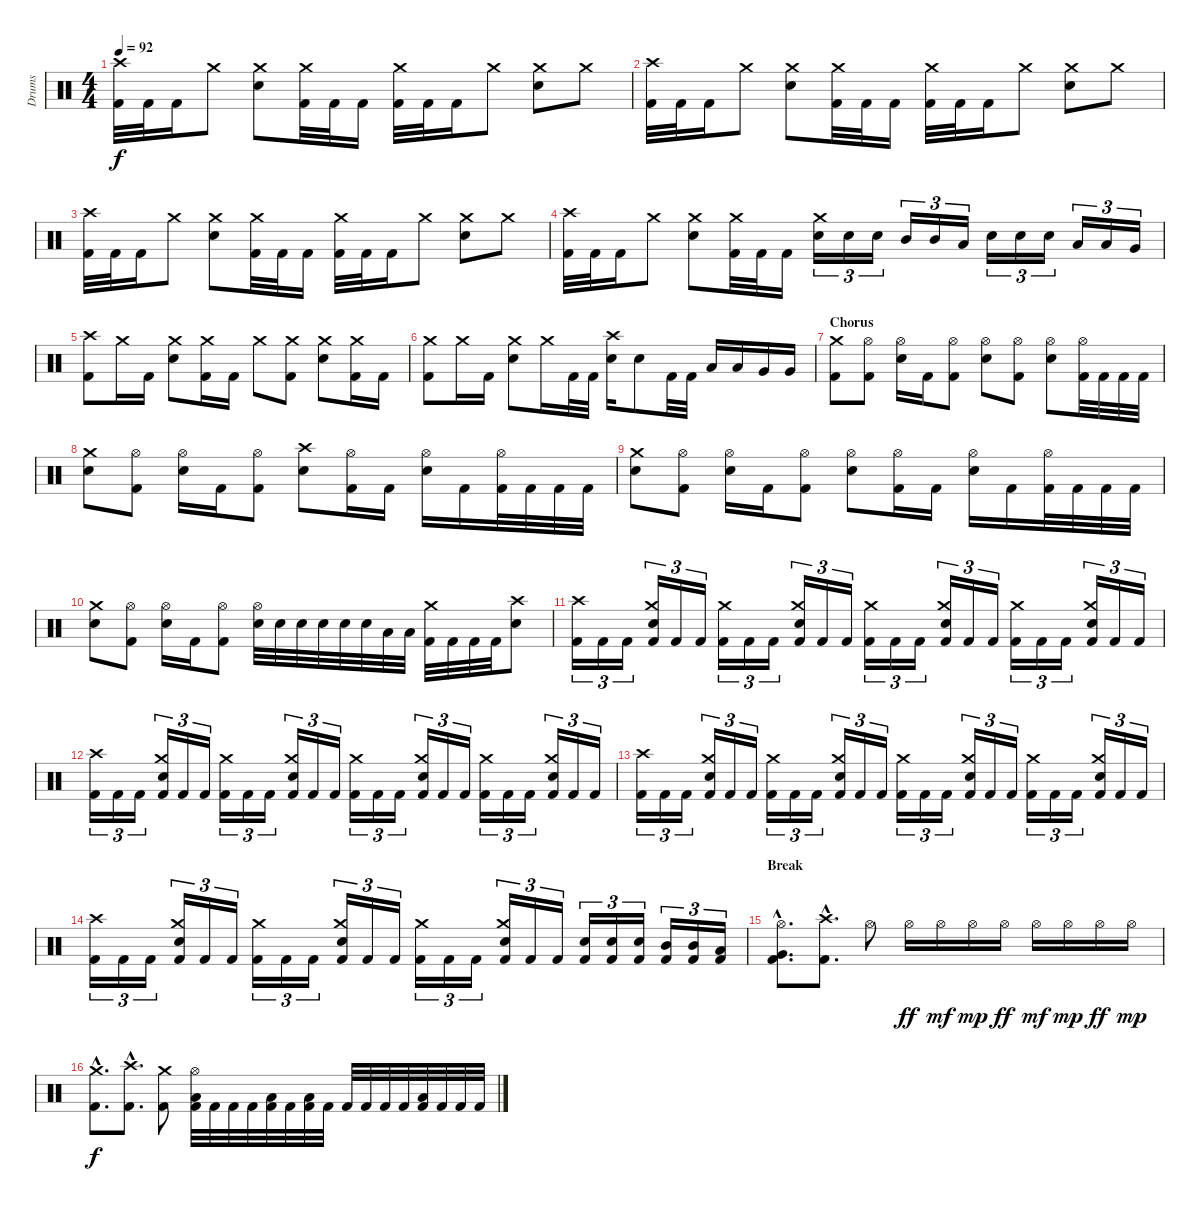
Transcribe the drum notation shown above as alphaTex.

\track ("Drums" "Drums") {instrument percussion}
\staff {score}
\articulation defaults
\ts (4 4)
\tempo 92
\clef neutral
\ks c
("Kick (hit) 2" "Crash high (hit)").32{dy f} "Kick (hit) 2".32 "Kick (hit) 2".16 "Crash medium (hit)".8 ("Electric Snare (hit)" "Crash medium (hit)").8 ("Kick (hit) 2" "Crash medium (hit)").32 "Kick (hit) 2".32 "Kick (hit) 2".16 ("Kick (hit) 2" "Crash medium (hit)").32 "Kick (hit) 2".32 "Kick (hit) 2".16 "Crash medium (hit)".8 ("Electric Snare (hit)" "Crash medium (hit)").8 "Crash medium (hit)".8 |
("Kick (hit) 2" "Crash high (hit)").32 "Kick (hit) 2".32 "Kick (hit) 2".16 "Crash medium (hit)".8 ("Electric Snare (hit)" "Crash medium (hit)").8 ("Kick (hit) 2" "Crash medium (hit)").32 "Kick (hit) 2".32 "Kick (hit) 2".16 ("Kick (hit) 2" "Crash medium (hit)").32 "Kick (hit) 2".32 "Kick (hit) 2".16 "Crash medium (hit)".8 ("Electric Snare (hit)" "Crash medium (hit)").8 "Crash medium (hit)".8 |
("Kick (hit) 2" "Crash high (hit)").32 "Kick (hit) 2".32 "Kick (hit) 2".16 "Crash medium (hit)".8 ("Electric Snare (hit)" "Crash medium (hit)").8 ("Kick (hit) 2" "Crash medium (hit)").32 "Kick (hit) 2".32 "Kick (hit) 2".16 ("Kick (hit) 2" "Crash medium (hit)").32 "Kick (hit) 2".32 "Kick (hit) 2".16 "Crash medium (hit)".8 ("Electric Snare (hit)" "Crash medium (hit)").8 "Crash medium (hit)".8 |
("Kick (hit) 2" "Crash high (hit)").32 "Kick (hit) 2".32 "Kick (hit) 2".16 "Crash medium (hit)".8 ("Electric Snare (hit)" "Crash medium (hit)").8 ("Kick (hit) 2" "Crash medium (hit)").32 "Kick (hit) 2".32 "Kick (hit) 2".16 ("Electric Snare (hit)" "Crash medium (hit)").16{tu (3 2)} "Electric Snare (hit)".16{tu (3 2)} "Electric Snare (hit)".16{tu (3 2)} "Mid Tom (hit)".16{tu (3 2)} "Mid Tom (hit)".16{tu (3 2)} "Low Tom (hit)".16{tu (3 2)} "Electric Snare (hit)".16{tu (3 2)} "Electric Snare (hit)".16{tu (3 2)} "Electric Snare (hit)".16{tu (3 2)} "Low Tom (hit)".16{tu (3 2)} "Low Tom (hit)".16{tu (3 2)} "Very Low Tom (hit)".16{tu (3 2)} |
("Kick (hit) 2" "Crash high (hit)").8 "Crash medium (hit)".16 "Kick (hit) 2".16 ("Electric Snare (hit)" "Crash medium (hit)").8 ("Kick (hit) 2" "Crash medium (hit)").16 "Kick (hit) 2".16 "Crash medium (hit)".8 ("Kick (hit) 2" "Crash medium (hit)").8 ("Electric Snare (hit)" "Crash medium (hit)").8 ("Kick (hit) 2" "Crash medium (hit)").16 "Kick (hit) 2".16 |
("Kick (hit) 2" "Crash medium (hit)").8 "Crash medium (hit)".16 "Kick (hit) 2".16 ("Electric Snare (hit)" "Crash medium (hit)").8 "Crash medium (hit)".16 "Kick (hit) 2".32 "Kick (hit) 2".32 ("Electric Snare (hit)" "Crash high (hit)").16 "Electric Snare (hit)".8 "Kick (hit) 2".32 "Kick (hit) 2".32 "Low Tom (hit)".16 "Low Tom (hit)".16 "Very Low Tom (hit)".16 "Very Low Tom (hit)".16 |
\section ("" "Chorus")
("Kick (hit) 2" "Crash medium (hit)").8 ("Kick (hit) 2" "Hi-Hat (open)").8 ("Electric Snare (hit)" "Hi-Hat (open)").16 "Kick (hit) 2".16 ("Kick (hit) 2" "Hi-Hat (open)").8 ("Electric Snare (hit)" "Hi-Hat (open)").8 ("Kick (hit) 2" "Hi-Hat (open)").8 ("Electric Snare (hit)" "Hi-Hat (open)").8 ("Kick (hit) 2" "Hi-Hat (open)").32 "Kick (hit) 2".32 "Kick (hit) 2".32 "Kick (hit) 2".32 |
("Electric Snare (hit)" "Crash medium (hit)").8 ("Kick (hit) 2" "Hi-Hat (open)").8 ("Electric Snare (hit)" "Hi-Hat (open)").16 "Kick (hit) 2".16 ("Kick (hit) 2" "Hi-Hat (open)").8 ("Electric Snare (hit)" "Crash high (hit)").8 ("Kick (hit) 2" "Hi-Hat (open)").16 "Kick (hit) 2".16 ("Electric Snare (hit)" "Hi-Hat (open)").16 "Kick (hit) 2".16 ("Kick (hit) 2" "Hi-Hat (open)").32 "Kick (hit) 2".32 "Kick (hit) 2".32 "Kick (hit) 2".32 |
("Electric Snare (hit)" "Crash medium (hit)").8 ("Kick (hit) 2" "Hi-Hat (open)").8 ("Electric Snare (hit)" "Hi-Hat (open)").16 "Kick (hit) 2".16 ("Kick (hit) 2" "Hi-Hat (open)").8 ("Electric Snare (hit)" "Hi-Hat (open)").8 ("Kick (hit) 2" "Hi-Hat (open)").16 "Kick (hit) 2".16 ("Electric Snare (hit)" "Hi-Hat (open)").16 "Kick (hit) 2".16 ("Kick (hit) 2" "Hi-Hat (open)").32 "Kick (hit) 2".32 "Kick (hit) 2".32 "Kick (hit) 2".32 |
("Electric Snare (hit)" "Crash medium (hit)").8 ("Kick (hit) 2" "Hi-Hat (open)").8 ("Electric Snare (hit)" "Hi-Hat (open)").16 "Kick (hit) 2".16 ("Kick (hit) 2" "Hi-Hat (open)").8 ("Electric Snare (hit)" "Hi-Hat (open)").32 "Electric Snare (hit)".32 "Electric Snare (hit)".32 "Electric Snare (hit)".32 "Electric Snare (hit)".32 "Electric Snare (hit)".32 "Low Tom (hit)".32 "Low Tom (hit)".32 ("Kick (hit) 2" "Crash medium (hit)").32 "Kick (hit) 2".32 "Kick (hit) 2".32 "Kick (hit) 2".32 ("Electric Snare (hit)" "Crash high (hit)").8 |
("Kick (hit) 2" "Crash high (hit)").16{tu (3 2)} "Kick (hit) 2".16{tu (3 2)} "Kick (hit) 2".16{tu (3 2)} ("Kick (hit) 2" "Electric Snare (hit)" "Crash medium (hit)").16{tu (3 2)} "Kick (hit) 2".16{tu (3 2)} "Kick (hit) 2".16{tu (3 2)} ("Kick (hit) 2" "Crash medium (hit)").16{tu (3 2)} "Kick (hit) 2".16{tu (3 2)} "Kick (hit) 2".16{tu (3 2)} ("Kick (hit) 2" "Electric Snare (hit)" "Crash medium (hit)").16{tu (3 2)} "Kick (hit) 2".16{tu (3 2)} "Kick (hit) 2".16{tu (3 2)} ("Kick (hit) 2" "Crash medium (hit)").16{tu (3 2)} "Kick (hit) 2".16{tu (3 2)} "Kick (hit) 2".16{tu (3 2)} ("Kick (hit) 2" "Electric Snare (hit)" "Crash medium (hit)").16{tu (3 2)} "Kick (hit) 2".16{tu (3 2)} "Kick (hit) 2".16{tu (3 2)} ("Kick (hit) 2" "Crash medium (hit)").16{tu (3 2)} "Kick (hit) 2".16{tu (3 2)} "Kick (hit) 2".16{tu (3 2)} ("Kick (hit) 2" "Electric Snare (hit)" "Crash medium (hit)").16{tu (3 2)} "Kick (hit) 2".16{tu (3 2)} "Kick (hit) 2".16{tu (3 2)} |
("Kick (hit) 2" "Crash high (hit)").16{tu (3 2)} "Kick (hit) 2".16{tu (3 2)} "Kick (hit) 2".16{tu (3 2)} ("Kick (hit) 2" "Electric Snare (hit)" "Crash medium (hit)").16{tu (3 2)} "Kick (hit) 2".16{tu (3 2)} "Kick (hit) 2".16{tu (3 2)} ("Kick (hit) 2" "Crash medium (hit)").16{tu (3 2)} "Kick (hit) 2".16{tu (3 2)} "Kick (hit) 2".16{tu (3 2)} ("Kick (hit) 2" "Electric Snare (hit)" "Crash medium (hit)").16{tu (3 2)} "Kick (hit) 2".16{tu (3 2)} "Kick (hit) 2".16{tu (3 2)} ("Kick (hit) 2" "Crash medium (hit)").16{tu (3 2)} "Kick (hit) 2".16{tu (3 2)} "Kick (hit) 2".16{tu (3 2)} ("Kick (hit) 2" "Electric Snare (hit)" "Crash medium (hit)").16{tu (3 2)} "Kick (hit) 2".16{tu (3 2)} "Kick (hit) 2".16{tu (3 2)} ("Kick (hit) 2" "Crash medium (hit)").16{tu (3 2)} "Kick (hit) 2".16{tu (3 2)} "Kick (hit) 2".16{tu (3 2)} ("Kick (hit) 2" "Electric Snare (hit)" "Crash medium (hit)").16{tu (3 2)} "Kick (hit) 2".16{tu (3 2)} "Kick (hit) 2".16{tu (3 2)} |
("Kick (hit) 2" "Crash high (hit)").16{tu (3 2)} "Kick (hit) 2".16{tu (3 2)} "Kick (hit) 2".16{tu (3 2)} ("Kick (hit) 2" "Electric Snare (hit)" "Crash medium (hit)").16{tu (3 2)} "Kick (hit) 2".16{tu (3 2)} "Kick (hit) 2".16{tu (3 2)} ("Kick (hit) 2" "Crash medium (hit)").16{tu (3 2)} "Kick (hit) 2".16{tu (3 2)} "Kick (hit) 2".16{tu (3 2)} ("Kick (hit) 2" "Electric Snare (hit)" "Crash medium (hit)").16{tu (3 2)} "Kick (hit) 2".16{tu (3 2)} "Kick (hit) 2".16{tu (3 2)} ("Kick (hit) 2" "Crash medium (hit)").16{tu (3 2)} "Kick (hit) 2".16{tu (3 2)} "Kick (hit) 2".16{tu (3 2)} ("Kick (hit) 2" "Electric Snare (hit)" "Crash medium (hit)").16{tu (3 2)} "Kick (hit) 2".16{tu (3 2)} "Kick (hit) 2".16{tu (3 2)} ("Kick (hit) 2" "Crash medium (hit)").16{tu (3 2)} "Kick (hit) 2".16{tu (3 2)} "Kick (hit) 2".16{tu (3 2)} ("Kick (hit) 2" "Electric Snare (hit)" "Crash medium (hit)").16{tu (3 2)} "Kick (hit) 2".16{tu (3 2)} "Kick (hit) 2".16{tu (3 2)} |
("Kick (hit) 2" "Crash high (hit)").16{tu (3 2)} "Kick (hit) 2".16{tu (3 2)} "Kick (hit) 2".16{tu (3 2)} ("Kick (hit) 2" "Electric Snare (hit)" "Crash medium (hit)").16{tu (3 2)} "Kick (hit) 2".16{tu (3 2)} "Kick (hit) 2".16{tu (3 2)} ("Kick (hit) 2" "Crash medium (hit)").16{tu (3 2)} "Kick (hit) 2".16{tu (3 2)} "Kick (hit) 2".16{tu (3 2)} ("Kick (hit) 2" "Electric Snare (hit)" "Crash medium (hit)").16{tu (3 2)} "Kick (hit) 2".16{tu (3 2)} "Kick (hit) 2".16{tu (3 2)} ("Kick (hit) 2" "Crash medium (hit)").16{tu (3 2)} "Kick (hit) 2".16{tu (3 2)} "Kick (hit) 2".16{tu (3 2)} ("Kick (hit) 2" "Electric Snare (hit)" "Crash medium (hit)").16{tu (3 2)} "Kick (hit) 2".16{tu (3 2)} "Kick (hit) 2".16{tu (3 2)} ("Kick (hit) 2" "Electric Snare (hit)").16{tu (3 2)} ("Kick (hit) 2" "Electric Snare (hit)").16{tu (3 2)} ("Kick (hit) 2" "Electric Snare (hit)").16{tu (3 2)} ("Kick (hit) 2" "Mid Tom (hit)").16{tu (3 2)} ("Kick (hit) 2" "Mid Tom (hit)").16{tu (3 2)} ("Kick (hit) 2" "Low Tom (hit)").16{tu (3 2)} |
\section ("" "Break")
("Kick (hit) 2"{hac} "Very Low Tom (hit)"{hac} "Hi-Hat (open)"{hac}).8{d} ("Kick (hit) 2"{hac} "Crash high (hit)"{hac}).8{d} "Hi-Hat (open)".8 "Hi-Hat (open)".16{dy ff} "Hi-Hat (open)".16{dy mf} "Hi-Hat (open)".16{dy mp} "Hi-Hat (open)".16{dy ff} "Hi-Hat (open)".16{dy mf} "Hi-Hat (open)".16{dy mp} "Hi-Hat (open)".16{dy ff} "Hi-Hat (open)".16{dy mp} |
("Kick (hit) 2"{hac} "Crash medium (hit)"{hac}).8{d dy f} ("Kick (hit) 2"{hac} "Crash high (hit)"{hac}).8{d} ("Kick (hit) 2" "Crash medium (hit)").8 ("Kick (hit) 2" "Low Tom (hit)" "Hi-Hat (open)").32 "Kick (hit) 2".32 "Kick (hit) 2".32 "Kick (hit) 2".32 ("Kick (hit) 2" "Low Tom (hit)").32 "Kick (hit) 2".32 ("Kick (hit) 2" "Low Tom (hit)").32 "Kick (hit) 2".32 "Kick (hit) 2".32 "Kick (hit) 2".32 "Kick (hit) 2".32 "Kick (hit) 2".32 ("Kick (hit) 2" "Low Tom (hit)").32 "Kick (hit) 2".32 "Kick (hit) 2".32 "Kick (hit) 2".32
